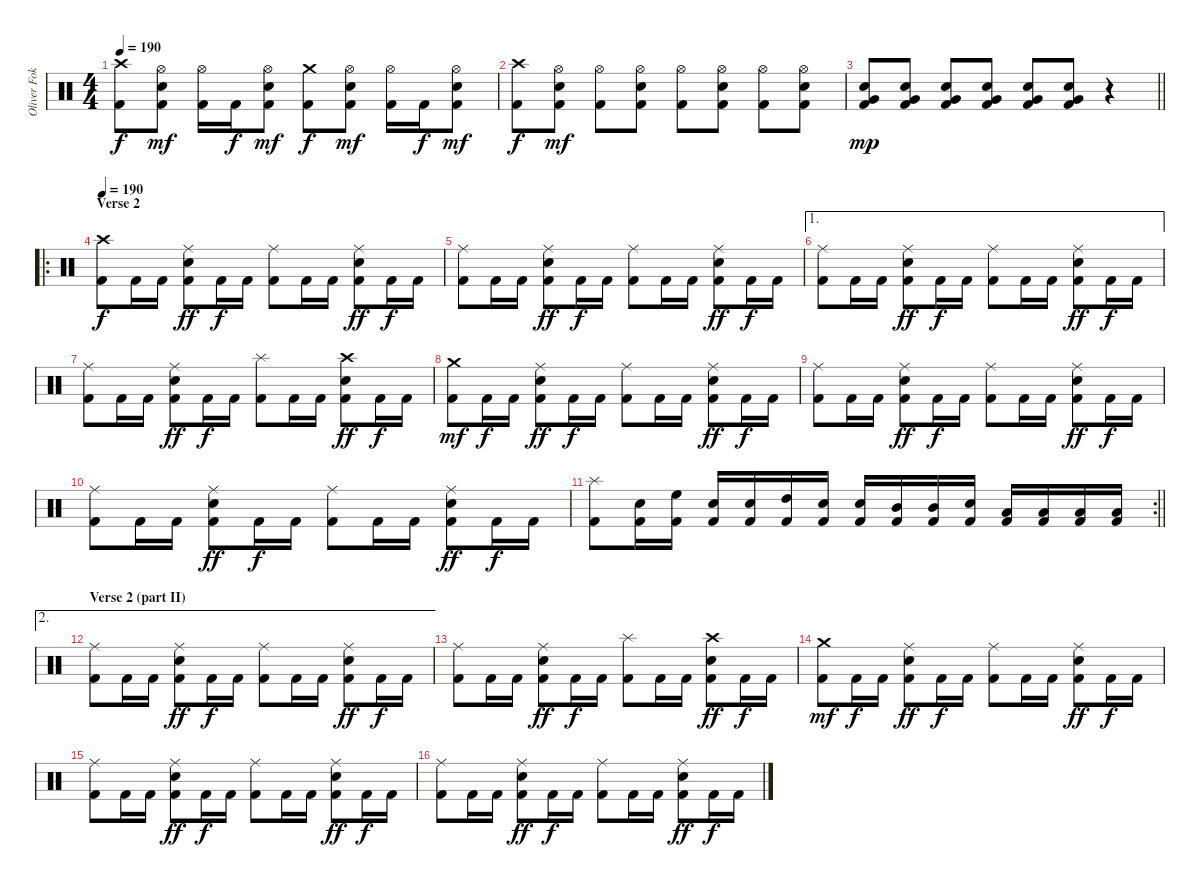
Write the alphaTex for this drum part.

\track ("Oliver Fokin" "Oliver Fok") {instrument percussion}
\staff {score}
\articulation defaults
\ts (4 4)
\tempo 190
\clef neutral
\ks c
("Crash high (hit)" "Kick (hit) 2").8{dy f} ("Hi-Hat (open)" "Electric Snare (hit)" "Kick (hit) 2").8{dy mf} ("Hi-Hat (open)" "Kick (hit) 2").16 "Kick (hit) 2".16{dy f} ("Hi-Hat (open)" "Electric Snare (hit)" "Kick (hit) 2").8{dy mf} ("Crash medium (hit)" "Kick (hit) 2").8{dy f} ("Hi-Hat (open)" "Electric Snare (hit)" "Kick (hit) 2").8{dy mf} ("Hi-Hat (open)" "Kick (hit) 2").16 "Kick (hit) 2".16{dy f} ("Hi-Hat (open)" "Electric Snare (hit)" "Kick (hit) 2").8{dy mf} |
("Crash high (hit)" "Kick (hit) 2").8{dy f} ("Hi-Hat (open)" "Electric Snare (hit)" "Kick (hit) 2").8{dy mf} ("Hi-Hat (open)" "Kick (hit) 2").8 ("Hi-Hat (open)" "Electric Snare (hit)" "Kick (hit) 2").8 ("Hi-Hat (open)" "Kick (hit) 2").8 ("Hi-Hat (open)" "Electric Snare (hit)" "Kick (hit) 2").8 ("Hi-Hat (open)" "Kick (hit) 2").8 ("Hi-Hat (open)" "Electric Snare (hit)" "Kick (hit) 2").8 |
\barLineRight lightlight
("Electric Snare (hit)" "Very Low Tom (hit)" "Kick (hit) 2").8{dy mp} ("Electric Snare (hit)" "Very Low Tom (hit)" "Kick (hit) 2").8 ("Electric Snare (hit)" "Very Low Tom (hit)" "Kick (hit) 2").8 ("Electric Snare (hit)" "Very Low Tom (hit)" "Kick (hit) 2").8 ("Electric Snare (hit)" "Very Low Tom (hit)" "Kick (hit) 2").8 ("Electric Snare (hit)" "Very Low Tom (hit)" "Kick (hit) 2").8 r.4 |
\ro
\section ("" "Verse 2")
\tempo 190
("Crash high (hit)" "Kick (hit) 2").8{dy f} "Kick (hit) 2".16 "Kick (hit) 2".16 ("Ride (middle)" "Electric Snare (hit)" "Kick (hit) 2").8{dy ff} "Kick (hit) 2".16{dy f} "Kick (hit) 2".16 ("Ride (middle)" "Kick (hit) 2").8 "Kick (hit) 2".16 "Kick (hit) 2".16 ("Ride (middle)" "Electric Snare (hit)" "Kick (hit) 2").8{dy ff} "Kick (hit) 2".16{dy f} "Kick (hit) 2".16 |
("Ride (middle)" "Kick (hit) 2").8 "Kick (hit) 2".16 "Kick (hit) 2".16 ("Ride (middle)" "Electric Snare (hit)" "Kick (hit) 2").8{dy ff} "Kick (hit) 2".16{dy f} "Kick (hit) 2".16 ("Ride (middle)" "Kick (hit) 2").8 "Kick (hit) 2".16 "Kick (hit) 2".16 ("Ride (middle)" "Electric Snare (hit)" "Kick (hit) 2").8{dy ff} "Kick (hit) 2".16{dy f} "Kick (hit) 2".16 |
\ae 1
("Ride (middle)" "Kick (hit) 2").8 "Kick (hit) 2".16 "Kick (hit) 2".16 ("Ride (middle)" "Electric Snare (hit)" "Kick (hit) 2").8{dy ff} "Kick (hit) 2".16{dy f} "Kick (hit) 2".16 ("Ride (middle)" "Kick (hit) 2").8 "Kick (hit) 2".16 "Kick (hit) 2".16 ("Ride (middle)" "Electric Snare (hit)" "Kick (hit) 2").8{dy ff} "Kick (hit) 2".16{dy f} "Kick (hit) 2".16 |
("Ride (middle)" "Kick (hit) 2").8 "Kick (hit) 2".16 "Kick (hit) 2".16 ("Ride (middle)" "Electric Snare (hit)" "Kick (hit) 2").8{dy ff} "Kick (hit) 2".16{dy f} "Kick (hit) 2".16 ("Splash (hit)" "Kick (hit) 2").8 "Kick (hit) 2".16 "Kick (hit) 2".16 ("Crash high (hit)" "Electric Snare (hit)" "Kick (hit) 2").8{dy ff} "Kick (hit) 2".16{dy f} "Kick (hit) 2".16 |
("Crash medium (hit)" "Kick (hit) 2").8{dy mf} "Kick (hit) 2".16{dy f} "Kick (hit) 2".16 ("Ride (middle)" "Electric Snare (hit)" "Kick (hit) 2").8{dy ff} "Kick (hit) 2".16{dy f} "Kick (hit) 2".16 ("Ride (middle)" "Kick (hit) 2").8 "Kick (hit) 2".16 "Kick (hit) 2".16 ("Ride (middle)" "Electric Snare (hit)" "Kick (hit) 2").8{dy ff} "Kick (hit) 2".16{dy f} "Kick (hit) 2".16 |
("Ride (middle)" "Kick (hit) 2").8 "Kick (hit) 2".16 "Kick (hit) 2".16 ("Ride (middle)" "Electric Snare (hit)" "Kick (hit) 2").8{dy ff} "Kick (hit) 2".16{dy f} "Kick (hit) 2".16 ("Ride (middle)" "Kick (hit) 2").8 "Kick (hit) 2".16 "Kick (hit) 2".16 ("Ride (middle)" "Electric Snare (hit)" "Kick (hit) 2").8{dy ff} "Kick (hit) 2".16{dy f} "Kick (hit) 2".16 |
("Ride (middle)" "Kick (hit) 2").8 "Kick (hit) 2".16 "Kick (hit) 2".16 ("Ride (middle)" "Electric Snare (hit)" "Kick (hit) 2").8{dy ff} "Kick (hit) 2".16{dy f} "Kick (hit) 2".16 ("Ride (middle)" "Kick (hit) 2").8 "Kick (hit) 2".16 "Kick (hit) 2".16 ("Ride (middle)" "Electric Snare (hit)" "Kick (hit) 2").8{dy ff} "Kick (hit) 2".16{dy f} "Kick (hit) 2".16 |
\rc 2
\barLineRight lightlight
("Splash (hit)" "Kick (hit) 2").8 ("Electric Snare (hit)" "Kick (hit) 2").16 ("High Floor Tom (hit)" "Kick (hit) 2").16 ("Electric Snare (hit)" "Kick (hit) 2").16 ("Electric Snare (hit)" "Kick (hit) 2").16 ("High Tom (hit)" "Kick (hit) 2").16 ("Electric Snare (hit)" "Kick (hit) 2").16 ("Electric Snare (hit)" "Kick (hit) 2").16 ("Mid Tom (hit)" "Kick (hit) 2").16 ("Mid Tom (hit)" "Kick (hit) 2").16 ("Electric Snare (hit)" "Kick (hit) 2").16 ("Low Tom (hit)" "Kick (hit) 2").16 ("Low Tom (hit)" "Kick (hit) 2").16 ("Low Tom (hit)" "Kick (hit) 2").16 ("Low Tom (hit)" "Kick (hit) 2").16 |
\ae 2
\section ("" "Verse 2 (part II)")
("Ride (middle)" "Kick (hit) 2").8 "Kick (hit) 2".16 "Kick (hit) 2".16 ("Ride (middle)" "Electric Snare (hit)" "Kick (hit) 2").8{dy ff} "Kick (hit) 2".16{dy f} "Kick (hit) 2".16 ("Ride (middle)" "Kick (hit) 2").8 "Kick (hit) 2".16 "Kick (hit) 2".16 ("Ride (middle)" "Electric Snare (hit)" "Kick (hit) 2").8{dy ff} "Kick (hit) 2".16{dy f} "Kick (hit) 2".16 |
("Ride (middle)" "Kick (hit) 2").8 "Kick (hit) 2".16 "Kick (hit) 2".16 ("Ride (middle)" "Electric Snare (hit)" "Kick (hit) 2").8{dy ff} "Kick (hit) 2".16{dy f} "Kick (hit) 2".16 ("Splash (hit)" "Kick (hit) 2").8 "Kick (hit) 2".16 "Kick (hit) 2".16 ("Crash high (hit)" "Electric Snare (hit)" "Kick (hit) 2").8{dy ff} "Kick (hit) 2".16{dy f} "Kick (hit) 2".16 |
("Crash medium (hit)" "Kick (hit) 2").8{dy mf} "Kick (hit) 2".16{dy f} "Kick (hit) 2".16 ("Ride (middle)" "Electric Snare (hit)" "Kick (hit) 2").8{dy ff} "Kick (hit) 2".16{dy f} "Kick (hit) 2".16 ("Ride (middle)" "Kick (hit) 2").8 "Kick (hit) 2".16 "Kick (hit) 2".16 ("Ride (middle)" "Electric Snare (hit)" "Kick (hit) 2").8{dy ff} "Kick (hit) 2".16{dy f} "Kick (hit) 2".16 |
("Ride (middle)" "Kick (hit) 2").8 "Kick (hit) 2".16 "Kick (hit) 2".16 ("Ride (middle)" "Electric Snare (hit)" "Kick (hit) 2").8{dy ff} "Kick (hit) 2".16{dy f} "Kick (hit) 2".16 ("Ride (middle)" "Kick (hit) 2").8 "Kick (hit) 2".16 "Kick (hit) 2".16 ("Ride (middle)" "Electric Snare (hit)" "Kick (hit) 2").8{dy ff} "Kick (hit) 2".16{dy f} "Kick (hit) 2".16 |
("Ride (middle)" "Kick (hit) 2").8 "Kick (hit) 2".16 "Kick (hit) 2".16 ("Ride (middle)" "Electric Snare (hit)" "Kick (hit) 2").8{dy ff} "Kick (hit) 2".16{dy f} "Kick (hit) 2".16 ("Ride (middle)" "Kick (hit) 2").8 "Kick (hit) 2".16 "Kick (hit) 2".16 ("Ride (middle)" "Electric Snare (hit)" "Kick (hit) 2").8{dy ff} "Kick (hit) 2".16{dy f} "Kick (hit) 2".16
